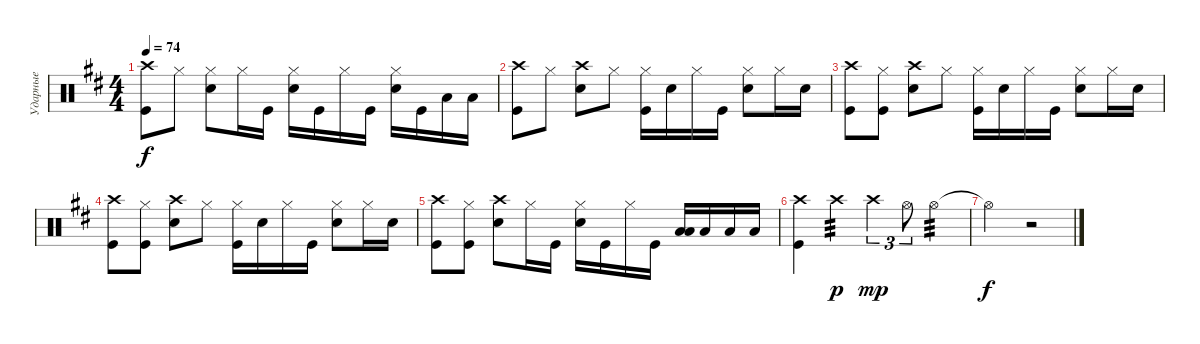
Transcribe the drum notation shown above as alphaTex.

\track ("Ударные" "Ударные") {instrument percussion}
\staff {score}
\articulation defaults
\ts (4 4)
\tempo 74
\clef neutral
\ks bminor
("Kick (hit)" "Crash high (hit)").8{dy f} "Hi-Hat (closed)".8 ("Snare (hit) 2" "Hi-Hat (closed)").8 "Hi-Hat (closed)".16 "Kick (hit)".16 ("Snare (hit) 2" "Hi-Hat (closed)").16 "Kick (hit)".16 "Hi-Hat (closed)".16 "Kick (hit)".16 ("Snare (hit) 2" "Hi-Hat (closed)").16 "Kick (hit)".16 "Low Tom (hit)".16 "Low Tom (hit)".16 |
("Kick (hit)" "Crash high (hit)").8 "Hi-Hat (closed)".8 ("Snare (hit) 2" "Crash high (hit)").8 "Hi-Hat (closed)".8 ("Hi-Hat (closed)" "Kick (hit)").16 "Snare (hit) 2".16 "Hi-Hat (closed)".16 "Kick (hit)".16 ("Hi-Hat (closed)" "Snare (hit) 2").8 "Hi-Hat (closed)".16 "Snare (hit) 2".16 |
("Kick (hit)" "Crash high (hit)").8 ("Hi-Hat (closed)" "Kick (hit)").8 ("Snare (hit) 2" "Crash high (hit)").8 "Hi-Hat (closed)".8 ("Hi-Hat (closed)" "Kick (hit)").16 "Snare (hit) 2".16 "Hi-Hat (closed)".16 "Kick (hit)".16 ("Hi-Hat (closed)" "Snare (hit) 2").8 "Hi-Hat (closed)".16 "Snare (hit) 2".16 |
("Kick (hit)" "Crash high (hit)").8 ("Hi-Hat (closed)" "Kick (hit)").8 ("Snare (hit) 2" "Crash high (hit)").8 "Hi-Hat (closed)".8 ("Hi-Hat (closed)" "Kick (hit)").16 "Snare (hit) 2".16 "Hi-Hat (closed)".16 "Kick (hit)".16 ("Hi-Hat (closed)" "Snare (hit) 2").8 "Hi-Hat (closed)".16 "Snare (hit) 2".16 |
("Kick (hit)" "Crash high (hit)").8 ("Hi-Hat (closed)" "Kick (hit)").8 ("Snare (hit) 2" "Crash high (hit)").8 "Hi-Hat (closed)".16 "Kick (hit)".16 ("Snare (hit) 2" "Hi-Hat (closed)").16 "Kick (hit)".16 "Hi-Hat (closed)".16 "Kick (hit)".16 ("Low Tom (hit)" "Low Tom (hit)").16{bd 240} "Low Floor Tom (hit)".16 "Low Tom (hit)".16 "Low Tom (hit)".16 |
("Kick (hit)" "Crash high (hit)").4 "Crash high (hit)".4{tp 3 dy p} "Crash high (hit)".4{tu (3 2) dy mp} "Hi-Hat (open)".8{tu (3 2)} "Hi-Hat (open)".4{tp 3 volume 0} |
"Hi-Hat (open)"{t}.2{dy f} r.2
